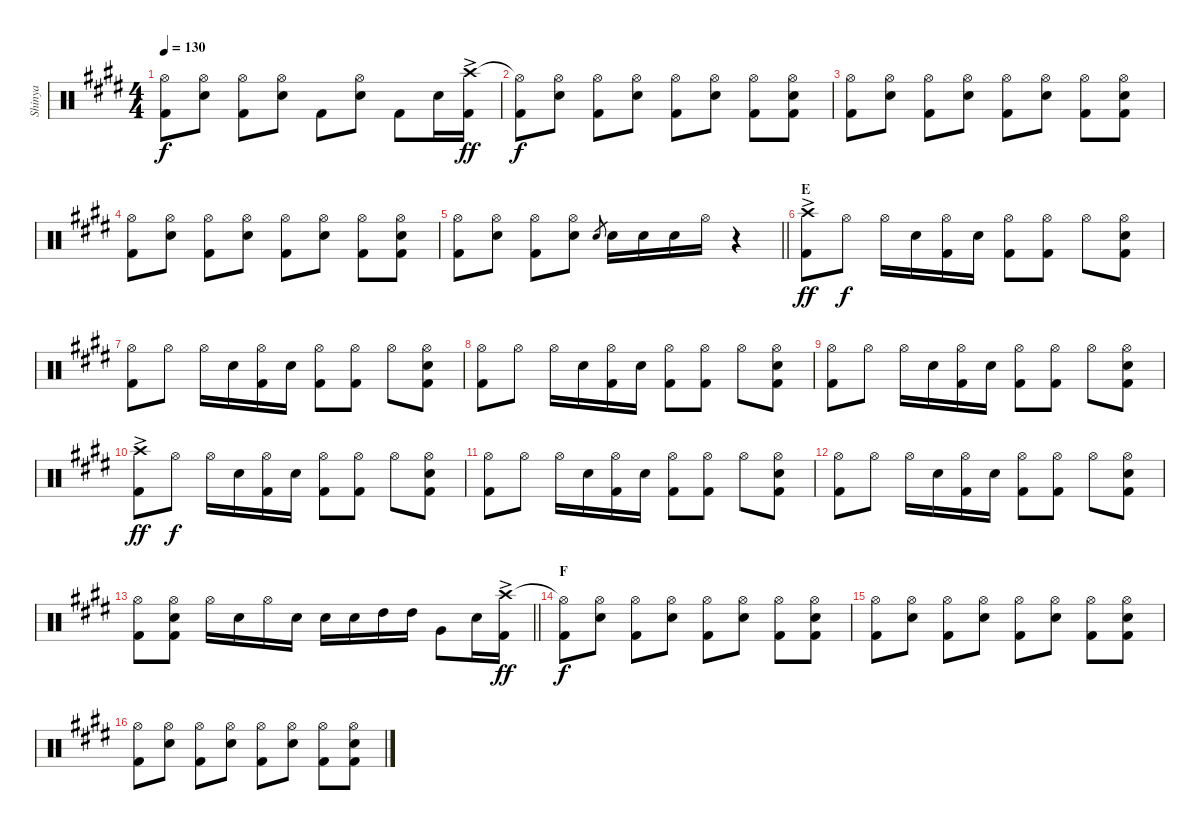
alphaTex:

\track ("Shinya" "Shinya") {instrument percussion}
\staff {score}
\articulation defaults
\ts (4 4)
\tempo 130
\clef neutral
\ks c#minor
("Hi-Hat (open)" "Kick (hit) 2").8{dy f} ("Hi-Hat (open)" "Snare (hit) 2").8 ("Hi-Hat (open)" "Kick (hit) 2").8 ("Hi-Hat (open)" "Snare (hit) 2").8 "Kick (hit) 2".8 ("Hi-Hat (open)" "Snare (hit) 2").8 "Kick (hit) 2".8 "Snare (hit) 2".16 ("Crash high (hit)"{ac} "Kick (hit) 2").16{dy ff} |
("Hi-Hat (open)"{t} "Kick (hit) 2").8{dy f} ("Hi-Hat (open)" "Snare (hit) 2").8 ("Hi-Hat (open)" "Kick (hit) 2").8 ("Hi-Hat (open)" "Snare (hit) 2").8 ("Hi-Hat (open)" "Kick (hit) 2").8 ("Hi-Hat (open)" "Snare (hit) 2").8 ("Hi-Hat (open)" "Kick (hit) 2").8 ("Hi-Hat (open)" "Snare (hit) 2" "Kick (hit) 2").8 |
("Hi-Hat (open)" "Kick (hit) 2").8 ("Hi-Hat (open)" "Snare (hit) 2").8 ("Hi-Hat (open)" "Kick (hit) 2").8 ("Hi-Hat (open)" "Snare (hit) 2").8 ("Hi-Hat (open)" "Kick (hit) 2").8 ("Hi-Hat (open)" "Snare (hit) 2").8 ("Hi-Hat (open)" "Kick (hit) 2").8 ("Hi-Hat (open)" "Snare (hit) 2" "Kick (hit) 2").8 |
("Hi-Hat (open)" "Kick (hit) 2").8 ("Hi-Hat (open)" "Snare (hit) 2").8 ("Hi-Hat (open)" "Kick (hit) 2").8 ("Hi-Hat (open)" "Snare (hit) 2").8 ("Hi-Hat (open)" "Kick (hit) 2").8 ("Hi-Hat (open)" "Snare (hit) 2").8 ("Hi-Hat (open)" "Kick (hit) 2").8 ("Hi-Hat (open)" "Snare (hit) 2" "Kick (hit) 2").8 |
\barLineRight lightlight
("Hi-Hat (open)" "Kick (hit) 2").8 ("Hi-Hat (open)" "Snare (hit) 2").8 ("Hi-Hat (open)" "Kick (hit) 2").8 ("Hi-Hat (open)" "Snare (hit) 2").8 "Snare (hit) 2".8{gr} "Snare (hit) 2".16 "Snare (hit) 2".16 "Snare (hit) 2".16 "Hi-Hat (open)".16 r.4 |
\section ("" "E")
("Crash high (hit)"{ac} "Kick (hit) 2").8{dy ff} "Hi-Hat (open)".8{dy f} "Hi-Hat (open)".16 "Snare (hit) 2".16 ("Hi-Hat (open)" "Kick (hit) 2").16 "Snare (hit) 2".16 ("Hi-Hat (open)" "Kick (hit) 2").8 ("Hi-Hat (open)" "Kick (hit) 2").8 "Hi-Hat (open)".8 ("Hi-Hat (open)" "Snare (hit) 2" "Kick (hit) 2").8 |
("Hi-Hat (open)" "Kick (hit) 2").8 "Hi-Hat (open)".8 "Hi-Hat (open)".16 "Snare (hit) 2".16 ("Hi-Hat (open)" "Kick (hit) 2").16 "Snare (hit) 2".16 ("Hi-Hat (open)" "Kick (hit) 2").8 ("Hi-Hat (open)" "Kick (hit) 2").8 "Hi-Hat (open)".8 ("Hi-Hat (open)" "Snare (hit) 2" "Kick (hit) 2").8 |
("Hi-Hat (open)" "Kick (hit) 2").8 "Hi-Hat (open)".8 "Hi-Hat (open)".16 "Snare (hit) 2".16 ("Hi-Hat (open)" "Kick (hit) 2").16 "Snare (hit) 2".16 ("Hi-Hat (open)" "Kick (hit) 2").8 ("Hi-Hat (open)" "Kick (hit) 2").8 "Hi-Hat (open)".8 ("Hi-Hat (open)" "Snare (hit) 2" "Kick (hit) 2").8 |
("Hi-Hat (open)" "Kick (hit) 2").8 "Hi-Hat (open)".8 "Hi-Hat (open)".16 "Snare (hit) 2".16 ("Hi-Hat (open)" "Kick (hit) 2").16 "Snare (hit) 2".16 ("Hi-Hat (open)" "Kick (hit) 2").8 ("Hi-Hat (open)" "Kick (hit) 2").8 "Hi-Hat (open)".8 ("Hi-Hat (open)" "Snare (hit) 2" "Kick (hit) 2").8 |
("Crash high (hit)"{ac} "Kick (hit) 2").8{dy ff} "Hi-Hat (open)".8{dy f} "Hi-Hat (open)".16 "Snare (hit) 2".16 ("Hi-Hat (open)" "Kick (hit) 2").16 "Snare (hit) 2".16 ("Hi-Hat (open)" "Kick (hit) 2").8 ("Hi-Hat (open)" "Kick (hit) 2").8 "Hi-Hat (open)".8 ("Hi-Hat (open)" "Snare (hit) 2" "Kick (hit) 2").8 |
("Hi-Hat (open)" "Kick (hit) 2").8 "Hi-Hat (open)".8 "Hi-Hat (open)".16 "Snare (hit) 2".16 ("Hi-Hat (open)" "Kick (hit) 2").16 "Snare (hit) 2".16 ("Hi-Hat (open)" "Kick (hit) 2").8 ("Hi-Hat (open)" "Kick (hit) 2").8 "Hi-Hat (open)".8 ("Hi-Hat (open)" "Snare (hit) 2" "Kick (hit) 2").8 |
("Hi-Hat (open)" "Kick (hit) 2").8 "Hi-Hat (open)".8 "Hi-Hat (open)".16 "Snare (hit) 2".16 ("Hi-Hat (open)" "Kick (hit) 2").16 "Snare (hit) 2".16 ("Hi-Hat (open)" "Kick (hit) 2").8 ("Hi-Hat (open)" "Kick (hit) 2").8 "Hi-Hat (open)".8 ("Hi-Hat (open)" "Snare (hit) 2" "Kick (hit) 2").8 |
\barLineRight lightlight
("Hi-Hat (open)" "Kick (hit) 2").8 ("Hi-Hat (open)" "Snare (hit) 2" "Kick (hit) 2").8 "Hi-Hat (open)".16 "Snare (hit) 2".16 "Hi-Hat (open)".16 "Snare (hit) 2".16 "Snare (hit) 2".16 "Snare (hit) 2".16 "High Tom (hit)".16 "High Tom (hit)".16 "Very Low Tom (hit)".8 "Snare (hit) 2".16 ("Crash high (hit)"{ac} "Kick (hit) 2").16{dy ff} |
\section ("" "F")
("Hi-Hat (open)"{t} "Kick (hit) 2").8{dy f} ("Hi-Hat (open)" "Snare (hit) 2").8 ("Hi-Hat (open)" "Kick (hit) 2").8 ("Hi-Hat (open)" "Snare (hit) 2").8 ("Hi-Hat (open)" "Kick (hit) 2").8 ("Hi-Hat (open)" "Snare (hit) 2").8 ("Hi-Hat (open)" "Kick (hit) 2").8 ("Hi-Hat (open)" "Snare (hit) 2" "Kick (hit) 2").8 |
("Hi-Hat (open)" "Kick (hit) 2").8 ("Hi-Hat (open)" "Snare (hit) 2").8 ("Hi-Hat (open)" "Kick (hit) 2").8 ("Hi-Hat (open)" "Snare (hit) 2").8 ("Hi-Hat (open)" "Kick (hit) 2").8 ("Hi-Hat (open)" "Snare (hit) 2").8 ("Hi-Hat (open)" "Kick (hit) 2").8 ("Hi-Hat (open)" "Snare (hit) 2" "Kick (hit) 2").8 |
("Hi-Hat (open)" "Kick (hit) 2").8 ("Hi-Hat (open)" "Snare (hit) 2").8 ("Hi-Hat (open)" "Kick (hit) 2").8 ("Hi-Hat (open)" "Snare (hit) 2").8 ("Hi-Hat (open)" "Kick (hit) 2").8 ("Hi-Hat (open)" "Snare (hit) 2").8 ("Hi-Hat (open)" "Kick (hit) 2").8 ("Hi-Hat (open)" "Snare (hit) 2" "Kick (hit) 2").8
